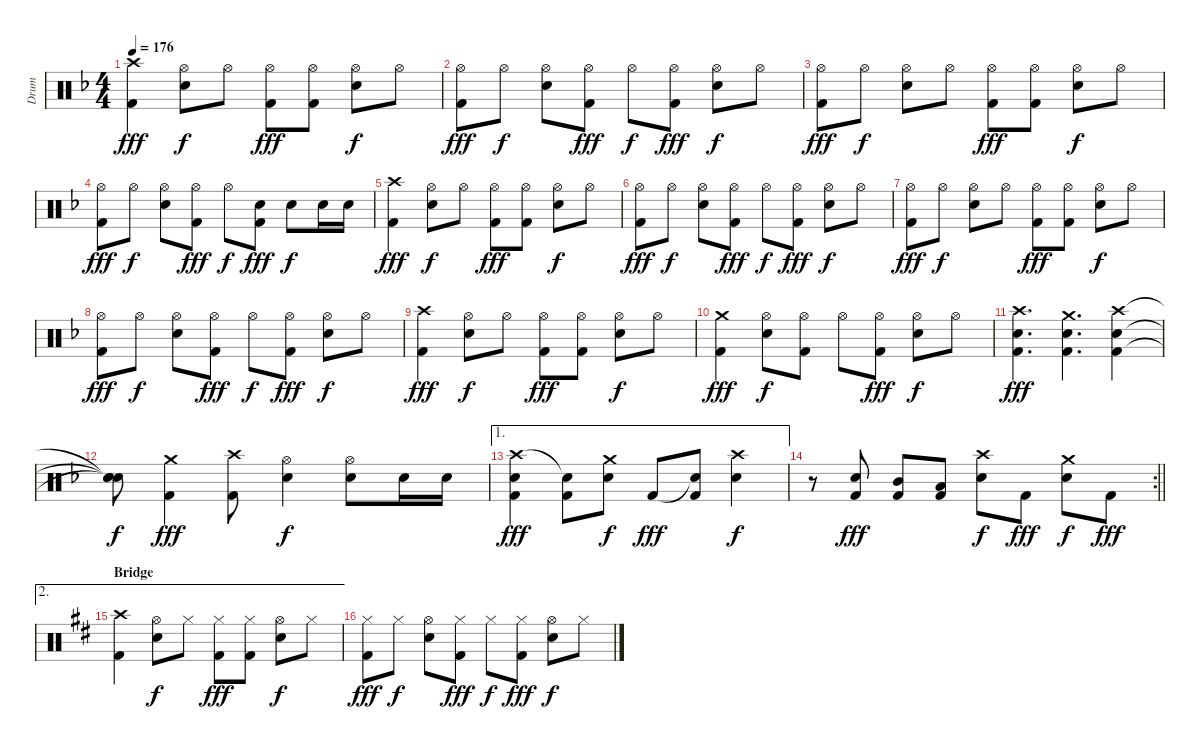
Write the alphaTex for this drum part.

\track ("Drum" "Drum") {instrument percussion}
\staff {score}
\articulation defaults
\ts (4 4)
\tempo 176
\clef neutral
\ks f
("Crash high (hit)" "Kick (hit) 2").4{dy fff} ("Hi-Hat (open)" "Snare (hit) 2").8{dy f} "Hi-Hat (open)".8 ("Hi-Hat (open)" "Kick (hit) 2").8{dy fff} ("Hi-Hat (open)" "Kick (hit) 2").8 ("Hi-Hat (open)" "Snare (hit) 2").8{dy f} "Hi-Hat (open)".8 |
("Hi-Hat (open)" "Kick (hit) 2").8{dy fff} "Hi-Hat (open)".8{dy f} ("Hi-Hat (open)" "Snare (hit) 2").8 ("Hi-Hat (open)" "Kick (hit) 2").8{dy fff} "Hi-Hat (open)".8{dy f} ("Hi-Hat (open)" "Kick (hit) 2").8{dy fff} ("Hi-Hat (open)" "Snare (hit) 2").8{dy f} "Hi-Hat (open)".8 |
("Hi-Hat (open)" "Kick (hit) 2").8{dy fff} "Hi-Hat (open)".8{dy f} ("Hi-Hat (open)" "Snare (hit) 2").8 "Hi-Hat (open)".8 ("Hi-Hat (open)" "Kick (hit) 2").8{dy fff} ("Hi-Hat (open)" "Kick (hit) 2").8 ("Hi-Hat (open)" "Snare (hit) 2").8{dy f} "Hi-Hat (open)".8 |
("Hi-Hat (open)" "Kick (hit) 2").8{dy fff} "Hi-Hat (open)".8{dy f} ("Hi-Hat (open)" "Snare (hit) 2").8 ("Hi-Hat (open)" "Kick (hit) 2").8{dy fff} "Hi-Hat (open)".8{dy f} ("Snare (hit) 2" "Kick (hit) 2").8{dy fff} "Snare (hit) 2".8{dy f} "Snare (hit) 2".16 "Snare (hit) 2".16 |
("Crash high (hit)" "Kick (hit) 2").4{dy fff} ("Hi-Hat (open)" "Snare (hit) 2").8{dy f} "Hi-Hat (open)".8 ("Hi-Hat (open)" "Kick (hit) 2").8{dy fff} ("Hi-Hat (open)" "Kick (hit) 2").8 ("Hi-Hat (open)" "Snare (hit) 2").8{dy f} "Hi-Hat (open)".8 |
("Hi-Hat (open)" "Kick (hit) 2").8{dy fff} "Hi-Hat (open)".8{dy f} ("Hi-Hat (open)" "Snare (hit) 2").8 ("Hi-Hat (open)" "Kick (hit) 2").8{dy fff} "Hi-Hat (open)".8{dy f} ("Hi-Hat (open)" "Kick (hit) 2").8{dy fff} ("Hi-Hat (open)" "Snare (hit) 2").8{dy f} "Hi-Hat (open)".8 |
("Hi-Hat (open)" "Kick (hit) 2").8{dy fff} "Hi-Hat (open)".8{dy f} ("Hi-Hat (open)" "Snare (hit) 2").8 "Hi-Hat (open)".8 ("Hi-Hat (open)" "Kick (hit) 2").8{dy fff} ("Hi-Hat (open)" "Kick (hit) 2").8 ("Hi-Hat (open)" "Snare (hit) 2").8{dy f} "Hi-Hat (open)".8 |
("Hi-Hat (open)" "Kick (hit) 2").8{dy fff} "Hi-Hat (open)".8{dy f} ("Hi-Hat (open)" "Snare (hit) 2").8 ("Hi-Hat (open)" "Kick (hit) 2").8{dy fff} "Hi-Hat (open)".8{dy f} ("Hi-Hat (open)" "Kick (hit) 2").8{dy fff} ("Hi-Hat (open)" "Snare (hit) 2").8{dy f} "Hi-Hat (open)".8 |
("Crash high (hit)" "Kick (hit) 2").4{dy fff} ("Hi-Hat (open)" "Snare (hit) 2").8{dy f} "Hi-Hat (open)".8 ("Hi-Hat (open)" "Kick (hit) 2").8{dy fff} ("Hi-Hat (open)" "Kick (hit) 2").8 ("Hi-Hat (open)" "Snare (hit) 2").8{dy f} "Hi-Hat (open)".8 |
("Crash medium (hit)" "Kick (hit) 2").4{dy fff} ("Hi-Hat (open)" "Snare (hit) 2").8{dy f} ("Hi-Hat (open)" "Kick (hit) 2").8 "Hi-Hat (open)".8 ("Hi-Hat (open)" "Kick (hit) 2").8{dy fff} ("Hi-Hat (open)" "Snare (hit) 2").8{dy f} "Hi-Hat (open)".8 |
("Crash high (hit)" "Snare (hit) 2" "Kick (hit) 2").4{d dy fff} ("Crash medium (hit)" "Snare (hit) 2" "Kick (hit) 2").4{d} ("Crash high (hit)" "Snare (hit) 2" "Kick (hit) 2").4 |
("Snare (hit)"{t} "Snare (hit)"{t} "Snare (hit)"{t}).8{dy f} ("Crash medium (hit)" "Kick (hit) 2").4{dy fff} ("Crash high (hit)" "Kick (hit) 2").8 ("Hi-Hat (open)" "Snare (hit) 2").4{dy f} ("Hi-Hat (open)" "Snare (hit) 2").8 "Snare (hit) 2".16 "Snare (hit) 2".16 |
\ae 1
("Crash high (hit)" "Snare (hit) 2" "Kick (hit) 2").4{dy fff} ("Snare (hit)"{t} "Kick (hit) 2").8 ("Crash medium (hit)" "Snare (hit) 2").8{dy f} "Kick (hit) 2".8{dy fff} ("Snare (hit)"{t} "Kick (hit) 2").8 ("Crash high (hit)" "Snare (hit) 2").4{dy f} |
\rc 2
\barLineRight lightlight
r.8 ("Snare (hit) 2" "Kick (hit) 2").8{dy fff} ("Mid Tom (hit)" "Kick (hit) 2").8 ("Low Tom (hit)" "Kick (hit) 2").8 ("Crash high (hit)" "Snare (hit) 2").8{dy f} "Kick (hit) 2".8{dy fff} ("Crash medium (hit)" "Snare (hit) 2").8{dy f} "Kick (hit) 2".8{dy fff} |
\ae 2
\section ("" "Bridge")
\ks d
("Crash high (hit)" "Kick (hit) 2").4 ("Hi-Hat (open)" "Snare (hit) 2").8{dy f} "Hi-Hat (closed)".8 ("Hi-Hat (closed)" "Kick (hit) 2").8{dy fff} ("Hi-Hat (closed)" "Kick (hit) 2").8 ("Hi-Hat (open)" "Snare (hit) 2").8{dy f} "Hi-Hat (closed)".8 |
("Hi-Hat (closed)" "Kick (hit) 2").8{dy fff} "Hi-Hat (closed)".8{dy f} ("Hi-Hat (open)" "Snare (hit) 2").8 ("Hi-Hat (closed)" "Kick (hit) 2").8{dy fff} "Hi-Hat (closed)".8{dy f} ("Hi-Hat (closed)" "Kick (hit) 2").8{dy fff} ("Hi-Hat (open)" "Snare (hit) 2").8{dy f} "Hi-Hat (closed)".8
